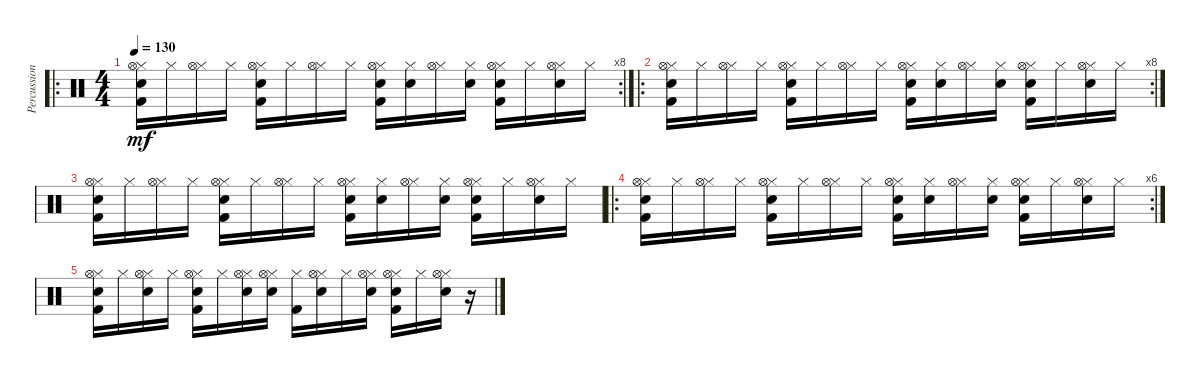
\track ("Percussion" "Percussion") {instrument percussion}
\staff {score}
\articulation defaults
\ro
\rc 8
\ts (4 4)
\tempo 130
\clef neutral
\ks c
("Hi-Hat (closed)" "Hi-Hat (open)" "Electric Snare (hit)" "Kick (hit) 2").16{dy mf} "Hi-Hat (closed)".16 ("Hi-Hat (closed)" "Hi-Hat (open)").16 "Hi-Hat (closed)".16 ("Hi-Hat (closed)" "Hi-Hat (open)" "Electric Snare (hit)" "Kick (hit) 2").16 "Hi-Hat (closed)".16 ("Hi-Hat (closed)" "Hi-Hat (open)").16 "Hi-Hat (closed)".16 ("Hi-Hat (closed)" "Hi-Hat (open)" "Electric Snare (hit)" "Kick (hit) 2").16 ("Hi-Hat (closed)" "Electric Snare (hit)").16 ("Hi-Hat (closed)" "Hi-Hat (open)").16 ("Hi-Hat (closed)" "Electric Snare (hit)").16 ("Hi-Hat (closed)" "Hi-Hat (open)" "Electric Snare (hit)" "Kick (hit) 2").16 "Hi-Hat (closed)".16 ("Hi-Hat (closed)" "Hi-Hat (open)" "Electric Snare (hit)").16 "Hi-Hat (closed)".16 |
\ro
\rc 8
("Hi-Hat (closed)" "Hi-Hat (open)" "Electric Snare (hit)" "Kick (hit) 2").16 "Hi-Hat (closed)".16 ("Hi-Hat (closed)" "Hi-Hat (open)").16 "Hi-Hat (closed)".16 ("Hi-Hat (closed)" "Hi-Hat (open)" "Electric Snare (hit)" "Kick (hit) 2").16 "Hi-Hat (closed)".16 ("Hi-Hat (closed)" "Hi-Hat (open)").16 "Hi-Hat (closed)".16 ("Hi-Hat (closed)" "Hi-Hat (open)" "Electric Snare (hit)" "Kick (hit) 2").16 ("Hi-Hat (closed)" "Electric Snare (hit)").16 ("Hi-Hat (closed)" "Hi-Hat (open)").16 ("Hi-Hat (closed)" "Electric Snare (hit)").16 ("Hi-Hat (closed)" "Hi-Hat (open)" "Electric Snare (hit)" "Kick (hit) 2").16 "Hi-Hat (closed)".16 ("Hi-Hat (closed)" "Hi-Hat (open)" "Electric Snare (hit)").16 "Hi-Hat (closed)".16 |
("Hi-Hat (closed)" "Hi-Hat (open)" "Electric Snare (hit)" "Kick (hit) 2").16 "Hi-Hat (closed)".16 ("Hi-Hat (closed)" "Hi-Hat (open)").16 "Hi-Hat (closed)".16 ("Hi-Hat (closed)" "Hi-Hat (open)" "Electric Snare (hit)" "Kick (hit) 2").16 "Hi-Hat (closed)".16 ("Hi-Hat (closed)" "Hi-Hat (open)").16 "Hi-Hat (closed)".16 ("Hi-Hat (closed)" "Hi-Hat (open)" "Electric Snare (hit)" "Kick (hit) 2").16 ("Hi-Hat (closed)" "Electric Snare (hit)").16 ("Hi-Hat (closed)" "Hi-Hat (open)").16 ("Hi-Hat (closed)" "Electric Snare (hit)").16 ("Hi-Hat (closed)" "Hi-Hat (open)" "Electric Snare (hit)" "Kick (hit) 2").16 "Hi-Hat (closed)".16 ("Hi-Hat (closed)" "Hi-Hat (open)" "Electric Snare (hit)").16 "Hi-Hat (closed)".16 |
\ro
\rc 6
("Hi-Hat (closed)" "Hi-Hat (open)" "Electric Snare (hit)" "Kick (hit) 2").16 "Hi-Hat (closed)".16 ("Hi-Hat (closed)" "Hi-Hat (open)").16 "Hi-Hat (closed)".16 ("Hi-Hat (closed)" "Hi-Hat (open)" "Electric Snare (hit)" "Kick (hit) 2").16 "Hi-Hat (closed)".16 ("Hi-Hat (closed)" "Hi-Hat (open)").16 "Hi-Hat (closed)".16 ("Hi-Hat (closed)" "Hi-Hat (open)" "Electric Snare (hit)" "Kick (hit) 2").16 ("Hi-Hat (closed)" "Electric Snare (hit)").16 ("Hi-Hat (closed)" "Hi-Hat (open)").16 ("Hi-Hat (closed)" "Electric Snare (hit)").16 ("Hi-Hat (closed)" "Hi-Hat (open)" "Electric Snare (hit)" "Kick (hit) 2").16 "Hi-Hat (closed)".16 ("Hi-Hat (closed)" "Hi-Hat (open)" "Electric Snare (hit)").16 "Hi-Hat (closed)".16 |
("Hi-Hat (closed)" "Hi-Hat (open)" "Electric Snare (hit)" "Kick (hit) 2").16 "Hi-Hat (closed)".16 ("Hi-Hat (closed)" "Hi-Hat (open)" "Electric Snare (hit)").16 "Hi-Hat (closed)".16 ("Hi-Hat (closed)" "Hi-Hat (open)" "Electric Snare (hit)" "Kick (hit) 2").16 "Hi-Hat (closed)".16 ("Hi-Hat (closed)" "Hi-Hat (open)" "Electric Snare (hit)").16 ("Hi-Hat (closed)" "Hi-Hat (open)" "Electric Snare (hit)").16 ("Hi-Hat (closed)" "Kick (hit) 2").16 ("Hi-Hat (closed)" "Hi-Hat (open)" "Electric Snare (hit)").16 "Hi-Hat (closed)".16 ("Hi-Hat (closed)" "Hi-Hat (open)" "Electric Snare (hit)").16 ("Hi-Hat (closed)" "Hi-Hat (open)" "Electric Snare (hit)" "Kick (hit) 2").16 "Hi-Hat (closed)".16 ("Hi-Hat (closed)" "Hi-Hat (open)" "Electric Snare (hit)").16 r.16
